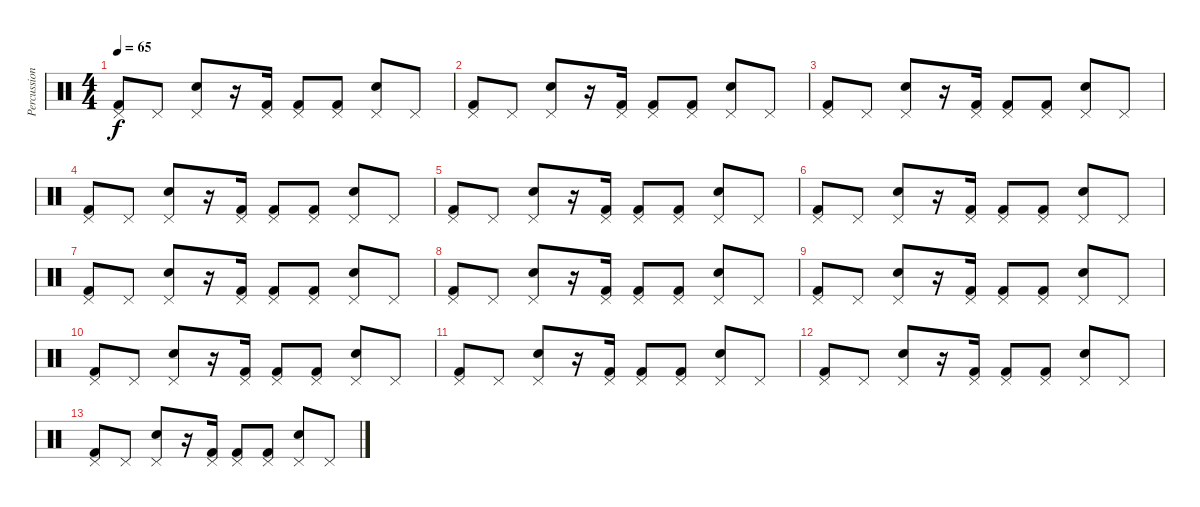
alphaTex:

\track ("Percussion" "Percussion") {instrument percussion}
\staff {score}
\articulation defaults
\ts (4 4)
\tempo 65
\clef neutral
\ks c
("Pedal Hi-Hat (hit)" "Kick (hit) 2").8{dy f} "Pedal Hi-Hat (hit)".8 ("Pedal Hi-Hat (hit)" "Snare (hit) 2").8 r.16 ("Pedal Hi-Hat (hit)" "Kick (hit) 2").16 ("Pedal Hi-Hat (hit)" "Kick (hit) 2").8 ("Pedal Hi-Hat (hit)" "Kick (hit) 2").8 ("Pedal Hi-Hat (hit)" "Snare (hit) 2").8 "Pedal Hi-Hat (hit)".8 |
("Pedal Hi-Hat (hit)" "Kick (hit) 2").8 "Pedal Hi-Hat (hit)".8 ("Pedal Hi-Hat (hit)" "Snare (hit) 2").8 r.16 ("Pedal Hi-Hat (hit)" "Kick (hit) 2").16 ("Pedal Hi-Hat (hit)" "Kick (hit) 2").8 ("Pedal Hi-Hat (hit)" "Kick (hit) 2").8 ("Pedal Hi-Hat (hit)" "Snare (hit) 2").8 "Pedal Hi-Hat (hit)".8 |
("Pedal Hi-Hat (hit)" "Kick (hit) 2").8 "Pedal Hi-Hat (hit)".8 ("Pedal Hi-Hat (hit)" "Snare (hit) 2").8 r.16 ("Pedal Hi-Hat (hit)" "Kick (hit) 2").16 ("Pedal Hi-Hat (hit)" "Kick (hit) 2").8 ("Pedal Hi-Hat (hit)" "Kick (hit) 2").8 ("Pedal Hi-Hat (hit)" "Snare (hit) 2").8 "Pedal Hi-Hat (hit)".8 |
("Pedal Hi-Hat (hit)" "Kick (hit) 2").8 "Pedal Hi-Hat (hit)".8 ("Pedal Hi-Hat (hit)" "Snare (hit) 2").8 r.16 ("Pedal Hi-Hat (hit)" "Kick (hit) 2").16 ("Pedal Hi-Hat (hit)" "Kick (hit) 2").8 ("Pedal Hi-Hat (hit)" "Kick (hit) 2").8 ("Pedal Hi-Hat (hit)" "Snare (hit) 2").8 "Pedal Hi-Hat (hit)".8 |
("Pedal Hi-Hat (hit)" "Kick (hit) 2").8 "Pedal Hi-Hat (hit)".8 ("Pedal Hi-Hat (hit)" "Snare (hit) 2").8 r.16 ("Pedal Hi-Hat (hit)" "Kick (hit) 2").16 ("Pedal Hi-Hat (hit)" "Kick (hit) 2").8 ("Pedal Hi-Hat (hit)" "Kick (hit) 2").8 ("Pedal Hi-Hat (hit)" "Snare (hit) 2").8 "Pedal Hi-Hat (hit)".8 |
("Pedal Hi-Hat (hit)" "Kick (hit) 2").8 "Pedal Hi-Hat (hit)".8 ("Pedal Hi-Hat (hit)" "Snare (hit) 2").8 r.16 ("Pedal Hi-Hat (hit)" "Kick (hit) 2").16 ("Pedal Hi-Hat (hit)" "Kick (hit) 2").8 ("Pedal Hi-Hat (hit)" "Kick (hit) 2").8 ("Pedal Hi-Hat (hit)" "Snare (hit) 2").8 "Pedal Hi-Hat (hit)".8 |
("Pedal Hi-Hat (hit)" "Kick (hit) 2").8 "Pedal Hi-Hat (hit)".8 ("Pedal Hi-Hat (hit)" "Snare (hit) 2").8 r.16 ("Pedal Hi-Hat (hit)" "Kick (hit) 2").16 ("Pedal Hi-Hat (hit)" "Kick (hit) 2").8 ("Pedal Hi-Hat (hit)" "Kick (hit) 2").8 ("Pedal Hi-Hat (hit)" "Snare (hit) 2").8 "Pedal Hi-Hat (hit)".8 |
("Pedal Hi-Hat (hit)" "Kick (hit) 2").8 "Pedal Hi-Hat (hit)".8 ("Pedal Hi-Hat (hit)" "Snare (hit) 2").8 r.16 ("Pedal Hi-Hat (hit)" "Kick (hit) 2").16 ("Pedal Hi-Hat (hit)" "Kick (hit) 2").8 ("Pedal Hi-Hat (hit)" "Kick (hit) 2").8 ("Pedal Hi-Hat (hit)" "Snare (hit) 2").8 "Pedal Hi-Hat (hit)".8 |
("Pedal Hi-Hat (hit)" "Kick (hit) 2").8 "Pedal Hi-Hat (hit)".8 ("Pedal Hi-Hat (hit)" "Snare (hit) 2").8 r.16 ("Pedal Hi-Hat (hit)" "Kick (hit) 2").16 ("Pedal Hi-Hat (hit)" "Kick (hit) 2").8 ("Pedal Hi-Hat (hit)" "Kick (hit) 2").8 ("Pedal Hi-Hat (hit)" "Snare (hit) 2").8 "Pedal Hi-Hat (hit)".8 |
("Pedal Hi-Hat (hit)" "Kick (hit) 2").8 "Pedal Hi-Hat (hit)".8 ("Pedal Hi-Hat (hit)" "Snare (hit) 2").8 r.16 ("Pedal Hi-Hat (hit)" "Kick (hit) 2").16 ("Pedal Hi-Hat (hit)" "Kick (hit) 2").8 ("Pedal Hi-Hat (hit)" "Kick (hit) 2").8 ("Pedal Hi-Hat (hit)" "Snare (hit) 2").8 "Pedal Hi-Hat (hit)".8 |
("Pedal Hi-Hat (hit)" "Kick (hit) 2").8 "Pedal Hi-Hat (hit)".8 ("Pedal Hi-Hat (hit)" "Snare (hit) 2").8 r.16 ("Pedal Hi-Hat (hit)" "Kick (hit) 2").16 ("Pedal Hi-Hat (hit)" "Kick (hit) 2").8 ("Pedal Hi-Hat (hit)" "Kick (hit) 2").8 ("Pedal Hi-Hat (hit)" "Snare (hit) 2").8 "Pedal Hi-Hat (hit)".8 |
("Pedal Hi-Hat (hit)" "Kick (hit) 2").8 "Pedal Hi-Hat (hit)".8 ("Pedal Hi-Hat (hit)" "Snare (hit) 2").8 r.16 ("Pedal Hi-Hat (hit)" "Kick (hit) 2").16 ("Pedal Hi-Hat (hit)" "Kick (hit) 2").8 ("Pedal Hi-Hat (hit)" "Kick (hit) 2").8 ("Pedal Hi-Hat (hit)" "Snare (hit) 2").8 "Pedal Hi-Hat (hit)".8 |
("Pedal Hi-Hat (hit)" "Kick (hit) 2").8 "Pedal Hi-Hat (hit)".8 ("Pedal Hi-Hat (hit)" "Snare (hit) 2").8 r.16 ("Pedal Hi-Hat (hit)" "Kick (hit) 2").16 ("Pedal Hi-Hat (hit)" "Kick (hit) 2").8 ("Pedal Hi-Hat (hit)" "Kick (hit) 2").8 ("Pedal Hi-Hat (hit)" "Snare (hit) 2").8 "Pedal Hi-Hat (hit)".8
